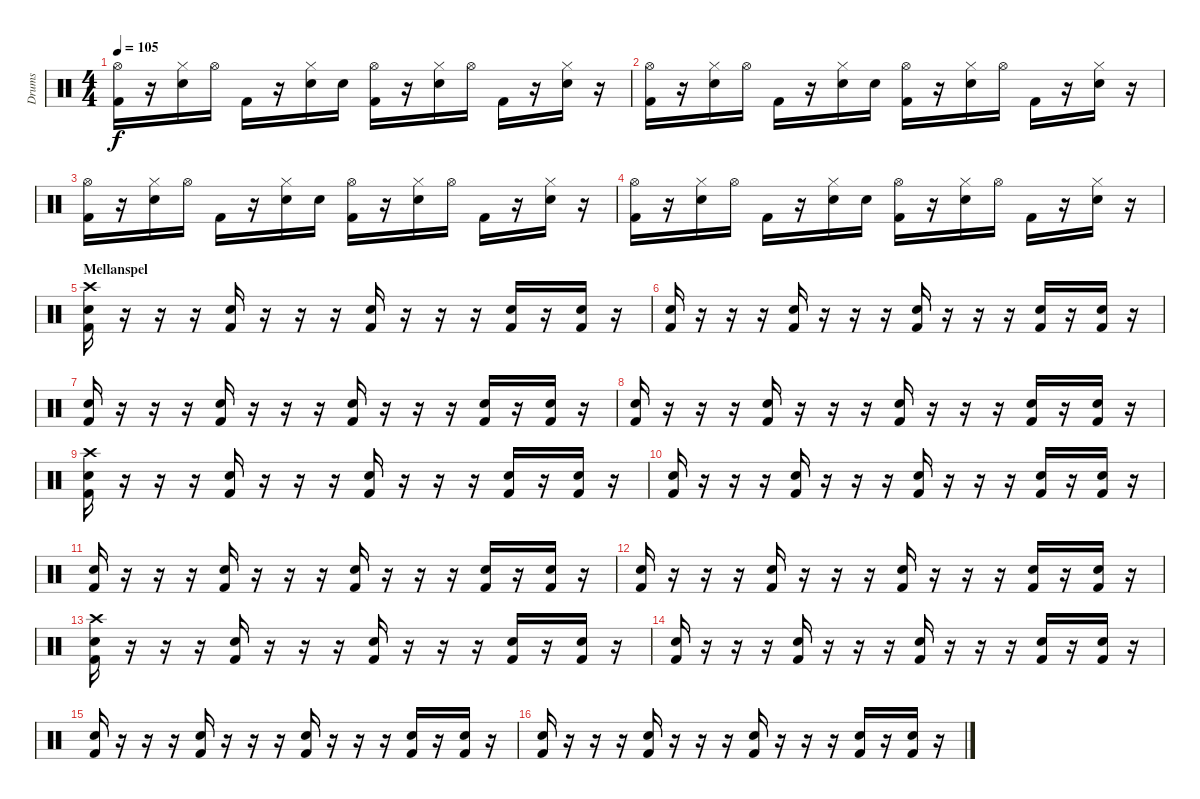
\track ("Drums" "Drums") {instrument percussion}
\staff {score}
\articulation defaults
\ts (4 4)
\tempo 105
\clef neutral
\ks c
("Hi-Hat (open)" "Kick (hit) 2").16{dy f} r.16 ("Hi-Hat (closed)" "Snare (hit) 2").16 "Hi-Hat (open)".16 "Kick (hit) 2".16 r.16 ("Hi-Hat (closed)" "Snare (hit) 2").16 "Snare (hit) 2".16 ("Hi-Hat (open)" "Kick (hit) 2").16 r.16 ("Hi-Hat (closed)" "Snare (hit) 2").16 "Hi-Hat (open)".16 "Kick (hit) 2".16 r.16 ("Hi-Hat (closed)" "Snare (hit) 2").16 r.16 |
("Hi-Hat (open)" "Kick (hit) 2").16 r.16 ("Hi-Hat (closed)" "Snare (hit) 2").16 "Hi-Hat (open)".16 "Kick (hit) 2".16 r.16 ("Hi-Hat (closed)" "Snare (hit) 2").16 "Snare (hit) 2".16 ("Hi-Hat (open)" "Kick (hit) 2").16 r.16 ("Hi-Hat (closed)" "Snare (hit) 2").16 "Hi-Hat (open)".16 "Kick (hit) 2".16 r.16 ("Hi-Hat (closed)" "Snare (hit) 2").16 r.16 |
("Hi-Hat (open)" "Kick (hit) 2").16 r.16 ("Hi-Hat (closed)" "Snare (hit) 2").16 "Hi-Hat (open)".16 "Kick (hit) 2".16 r.16 ("Hi-Hat (closed)" "Snare (hit) 2").16 "Snare (hit) 2".16 ("Hi-Hat (open)" "Kick (hit) 2").16 r.16 ("Hi-Hat (closed)" "Snare (hit) 2").16 "Hi-Hat (open)".16 "Kick (hit) 2".16 r.16 ("Hi-Hat (closed)" "Snare (hit) 2").16 r.16 |
("Hi-Hat (open)" "Kick (hit) 2").16 r.16 ("Hi-Hat (closed)" "Snare (hit) 2").16 "Hi-Hat (open)".16 "Kick (hit) 2".16 r.16 ("Hi-Hat (closed)" "Snare (hit) 2").16 "Snare (hit) 2".16 ("Hi-Hat (open)" "Kick (hit) 2").16 r.16 ("Hi-Hat (closed)" "Snare (hit) 2").16 "Hi-Hat (open)".16 "Kick (hit) 2".16 r.16 ("Hi-Hat (closed)" "Snare (hit) 2").16 r.16 |
\section ("" "Mellanspel")
("Crash high (hit)" "Snare (hit) 2" "Kick (hit) 2").16 r.16 r.16 r.16 ("Snare (hit) 2" "Kick (hit) 2").16 r.16 r.16 r.16 ("Snare (hit) 2" "Kick (hit) 2").16 r.16 r.16 r.16 ("Snare (hit) 2" "Kick (hit) 2").16 r.16 ("Snare (hit) 2" "Kick (hit) 2").16 r.16 |
("Snare (hit) 2" "Kick (hit) 2").16 r.16 r.16 r.16 ("Snare (hit) 2" "Kick (hit) 2").16 r.16 r.16 r.16 ("Snare (hit) 2" "Kick (hit) 2").16 r.16 r.16 r.16 ("Snare (hit) 2" "Kick (hit) 2").16 r.16 ("Snare (hit) 2" "Kick (hit) 2").16 r.16 |
("Snare (hit) 2" "Kick (hit) 2").16 r.16 r.16 r.16 ("Snare (hit) 2" "Kick (hit) 2").16 r.16 r.16 r.16 ("Snare (hit) 2" "Kick (hit) 2").16 r.16 r.16 r.16 ("Snare (hit) 2" "Kick (hit) 2").16 r.16 ("Snare (hit) 2" "Kick (hit) 2").16 r.16 |
("Snare (hit) 2" "Kick (hit) 2").16 r.16 r.16 r.16 ("Snare (hit) 2" "Kick (hit) 2").16 r.16 r.16 r.16 ("Snare (hit) 2" "Kick (hit) 2").16 r.16 r.16 r.16 ("Snare (hit) 2" "Kick (hit) 2").16 r.16 ("Snare (hit) 2" "Kick (hit) 2").16 r.16 |
("Crash high (hit)" "Snare (hit) 2" "Kick (hit) 2").16 r.16 r.16 r.16 ("Snare (hit) 2" "Kick (hit) 2").16 r.16 r.16 r.16 ("Snare (hit) 2" "Kick (hit) 2").16 r.16 r.16 r.16 ("Snare (hit) 2" "Kick (hit) 2").16 r.16 ("Snare (hit) 2" "Kick (hit) 2").16 r.16 |
("Snare (hit) 2" "Kick (hit) 2").16 r.16 r.16 r.16 ("Snare (hit) 2" "Kick (hit) 2").16 r.16 r.16 r.16 ("Snare (hit) 2" "Kick (hit) 2").16 r.16 r.16 r.16 ("Snare (hit) 2" "Kick (hit) 2").16 r.16 ("Snare (hit) 2" "Kick (hit) 2").16 r.16 |
("Snare (hit) 2" "Kick (hit) 2").16 r.16 r.16 r.16 ("Snare (hit) 2" "Kick (hit) 2").16 r.16 r.16 r.16 ("Snare (hit) 2" "Kick (hit) 2").16 r.16 r.16 r.16 ("Snare (hit) 2" "Kick (hit) 2").16 r.16 ("Snare (hit) 2" "Kick (hit) 2").16 r.16 |
("Snare (hit) 2" "Kick (hit) 2").16 r.16 r.16 r.16 ("Snare (hit) 2" "Kick (hit) 2").16 r.16 r.16 r.16 ("Snare (hit) 2" "Kick (hit) 2").16 r.16 r.16 r.16 ("Snare (hit) 2" "Kick (hit) 2").16 r.16 ("Snare (hit) 2" "Kick (hit) 2").16 r.16 |
("Crash high (hit)" "Snare (hit) 2" "Kick (hit) 2").16 r.16 r.16 r.16 ("Snare (hit) 2" "Kick (hit) 2").16 r.16 r.16 r.16 ("Snare (hit) 2" "Kick (hit) 2").16 r.16 r.16 r.16 ("Snare (hit) 2" "Kick (hit) 2").16 r.16 ("Snare (hit) 2" "Kick (hit) 2").16 r.16 |
("Snare (hit) 2" "Kick (hit) 2").16 r.16 r.16 r.16 ("Snare (hit) 2" "Kick (hit) 2").16 r.16 r.16 r.16 ("Snare (hit) 2" "Kick (hit) 2").16 r.16 r.16 r.16 ("Snare (hit) 2" "Kick (hit) 2").16 r.16 ("Snare (hit) 2" "Kick (hit) 2").16 r.16 |
("Snare (hit) 2" "Kick (hit) 2").16 r.16 r.16 r.16 ("Snare (hit) 2" "Kick (hit) 2").16 r.16 r.16 r.16 ("Snare (hit) 2" "Kick (hit) 2").16 r.16 r.16 r.16 ("Snare (hit) 2" "Kick (hit) 2").16 r.16 ("Snare (hit) 2" "Kick (hit) 2").16 r.16 |
("Snare (hit) 2" "Kick (hit) 2").16 r.16 r.16 r.16 ("Snare (hit) 2" "Kick (hit) 2").16 r.16 r.16 r.16 ("Snare (hit) 2" "Kick (hit) 2").16 r.16 r.16 r.16 ("Snare (hit) 2" "Kick (hit) 2").16 r.16 ("Snare (hit) 2" "Kick (hit) 2").16 r.16
